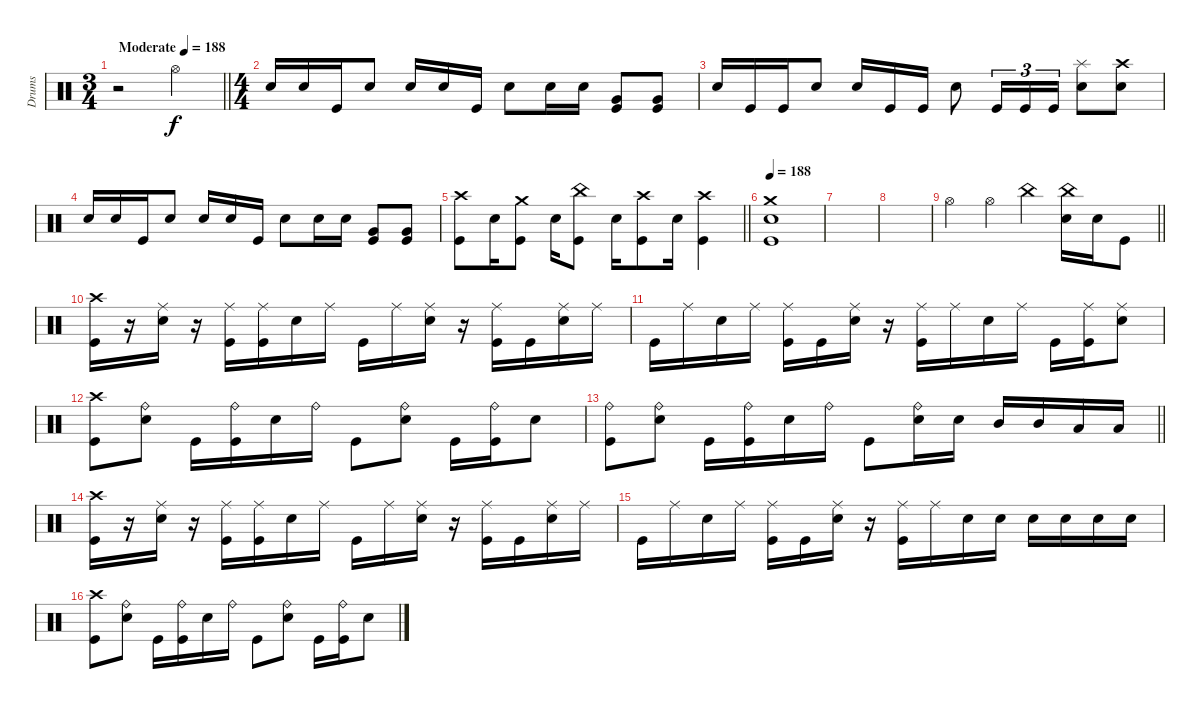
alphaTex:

\track ("Drums" "Drums") {instrument percussion}
\staff
\articulation defaults
\ts (3 4)
\tempo (188 "Moderate")
\tempo 155
\tempo (188 "Moderate")
\clef neutral
\barLineRight lightlight
\ks c
r.2{dy f} "Hi-Hat (open)".4 |
\ts (4 4)
"Electric Snare (hit)".16 "Electric Snare (hit)".16 "Kick (hit)".16 "Electric Snare (hit)".8 "Electric Snare (hit)".16 "Electric Snare (hit)".16 "Kick (hit)".16 "Electric Snare (hit)".8 "Electric Snare (hit)".16 "Electric Snare (hit)".16 ("Very Low Tom (hit)" "Kick (hit)").8 ("Very Low Tom (hit)" "Kick (hit)").8 |
"Electric Snare (hit)".16 "Kick (hit)".16 "Kick (hit)".16 "Electric Snare (hit)".8 "Electric Snare (hit)".16 "Kick (hit)".16 "Kick (hit)".16 "Electric Snare (hit)".8 "Kick (hit)".16{tu (3 2)} "Kick (hit)".16{tu (3 2)} "Kick (hit)".16{tu (3 2)} ("Splash (hit)" "Electric Snare (hit)").8 ("Crash high (hit)" "Electric Snare (hit)").8 |
"Electric Snare (hit)".16 "Electric Snare (hit)".16 "Kick (hit)".16 "Electric Snare (hit)".8 "Electric Snare (hit)".16 "Electric Snare (hit)".16 "Kick (hit)".16 "Electric Snare (hit)".8 "Electric Snare (hit)".16 "Electric Snare (hit)".16 ("Very Low Tom (hit)" "Kick (hit)").8 ("Very Low Tom (hit)" "Kick (hit)").8 |
\barLineRight lightlight
("Crash high (hit)" "Kick (hit)").8 "Electric Snare (hit)".16 ("Crash medium (hit)" "Kick (hit)").8 "Electric Snare (hit)".16 ("China (hit)" "Kick (hit)").8 "Electric Snare (hit)".16 ("Crash high (hit)" "Kick (hit)").8 "Electric Snare (hit)".16 ("Crash high (hit)" "Kick (hit)").4 |
\tempo 188
("Crash medium (hit)" "Electric Snare (hit)" "Kick (hit)").1 |
|
|
\barLineRight lightlight "Hi-Hat (open)".4 "Hi-Hat (open)".4 "China (hit)".4
("China (hit)" "Electric Snare (hit)").16 "Electric Snare (hit)".16 "Kick (hit)".8 |
("Crash high (hit)" "Kick (hit)").16 r.16 ("Ride (middle)" "Electric Snare (hit)").16 r.16 ("Ride (middle)" "Kick (hit)").16 ("Ride (middle)" "Kick (hit)").16 "Electric Snare (hit)".16 "Ride (middle)".16 "Kick (hit)".16 "Ride (middle)".16 ("Ride (middle)" "Electric Snare (hit)").16 r.16 ("Ride (middle)" "Kick (hit)").16 "Kick (hit)".16 ("Ride (middle)" "Electric Snare (hit)").16 "Ride (middle)".16 |
"Kick (hit)".16 "Ride (middle)".16 "Electric Snare (hit)".16 "Ride (middle)".16 ("Ride (middle)" "Kick (hit)").16 "Kick (hit)".16 ("Ride (middle)" "Electric Snare (hit)").16 r.16 ("Ride (middle)" "Kick (hit)").16 "Ride (middle)".16 "Electric Snare (hit)".16 "Ride (middle)".16 "Kick (hit)".16 ("Ride (middle)" "Kick (hit)").16 ("Ride (middle)" "Electric Snare (hit)").8 |
("Crash high (hit)" "Kick (hit)").8 ("Ride (bell)" "Electric Snare (hit)").8 "Kick (hit)".16 ("Ride (bell)" "Kick (hit)").16 "Electric Snare (hit)".16 "Ride (bell)".16 "Kick (hit)".8 ("Ride (bell)" "Electric Snare (hit)").8 "Kick (hit)".16 ("Ride (bell)" "Kick (hit)").16 "Electric Snare (hit)".8 |
\barLineRight lightlight
("Ride (bell)" "Kick (hit)").8 ("Ride (bell)" "Electric Snare (hit)").8 "Kick (hit)".16 ("Ride (bell)" "Kick (hit)").16 "Electric Snare (hit)".16 "Ride (bell)".16 "Kick (hit)".8 ("Ride (bell)" "Electric Snare (hit)").16 "Electric Snare (hit)".16 "Mid Tom (hit)".16 "Mid Tom (hit)".16 "Low Tom (hit)".16 "Low Tom (hit)".16 |
("Crash high (hit)" "Kick (hit)").16 r.16 ("Ride (middle)" "Electric Snare (hit)").16 r.16 ("Ride (middle)" "Kick (hit)").16 ("Ride (middle)" "Kick (hit)").16 "Electric Snare (hit)".16 "Ride (middle)".16 "Kick (hit)".16 "Ride (middle)".16 ("Ride (middle)" "Electric Snare (hit)").16 r.16 ("Ride (middle)" "Kick (hit)").16 "Kick (hit)".16 ("Ride (middle)" "Electric Snare (hit)").16 "Ride (middle)".16 |
"Kick (hit)".16 "Ride (middle)".16 "Electric Snare (hit)".16 "Ride (middle)".16 ("Ride (middle)" "Kick (hit)").16 "Kick (hit)".16 ("Ride (middle)" "Electric Snare (hit)").16 r.16 ("Ride (middle)" "Kick (hit)").16 "Ride (middle)".16 "Electric Snare (hit)".16 "Electric Snare (hit)".16 "Electric Snare (hit)".16 "Electric Snare (hit)".16 "Electric Snare (hit)".16 "Electric Snare (hit)".16 |
("Crash high (hit)" "Kick (hit)").8 ("Ride (bell)" "Electric Snare (hit)").8 "Kick (hit)".16 ("Ride (bell)" "Kick (hit)").16 "Electric Snare (hit)".16 "Ride (bell)".16 "Kick (hit)".8 ("Ride (bell)" "Electric Snare (hit)").8 "Kick (hit)".16 ("Ride (bell)" "Kick (hit)").16 "Electric Snare (hit)".8
